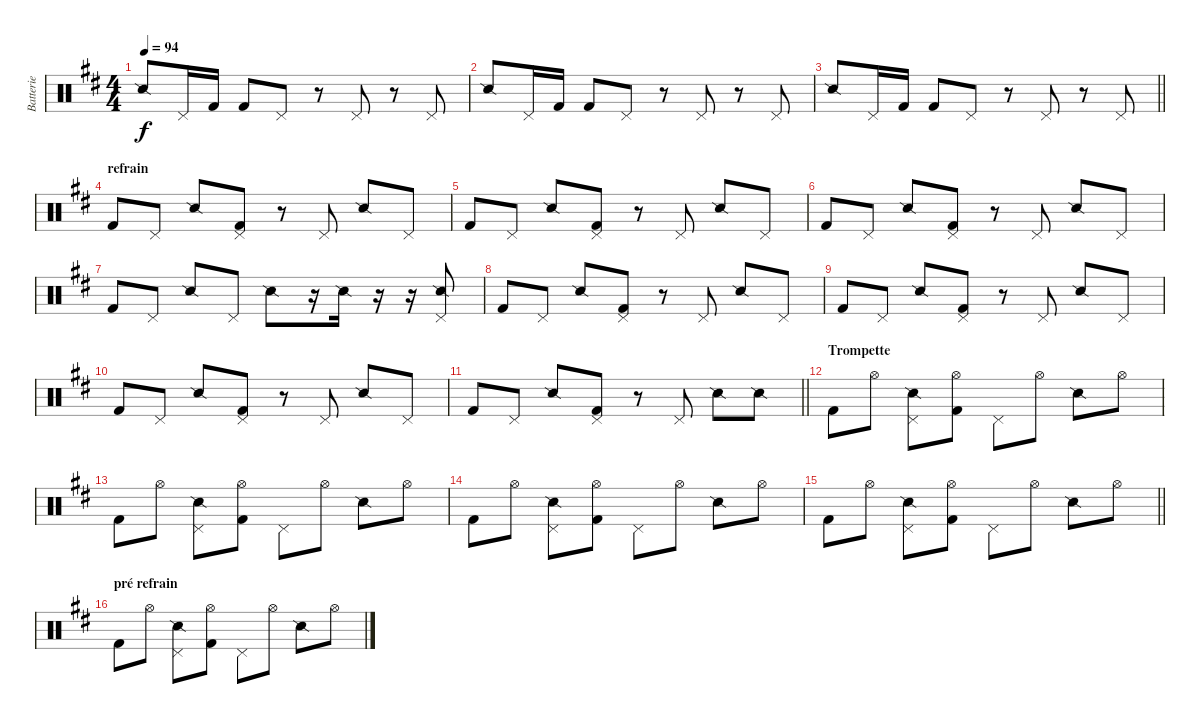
\track ("Batterie" "Batterie") {instrument percussion}
\staff {score}
\articulation defaults
\ts (4 4)
\tempo 94
\clef neutral
\ks d "Snare (side stick) 2".8{dy f} "Pedal Hi-Hat (hit)".16 "Kick (hit) 2".16 "Kick (hit) 2".8 "Pedal Hi-Hat (hit)".8
r.8 "Pedal Hi-Hat (hit)".8 r.8 "Pedal Hi-Hat (hit)".8 |
"Snare (side stick) 2".8 "Pedal Hi-Hat (hit)".16 "Kick (hit) 2".16 "Kick (hit) 2".8 "Pedal Hi-Hat (hit)".8 r.8 "Pedal Hi-Hat (hit)".8 r.8 "Pedal Hi-Hat (hit)".8 |
\barLineRight lightlight "Snare (side stick) 2".8 "Pedal Hi-Hat (hit)".16 "Kick (hit) 2".16 "Kick (hit) 2".8 "Pedal Hi-Hat (hit)".8
r.8 "Pedal Hi-Hat (hit)".8 r.8 "Pedal Hi-Hat (hit)".8 |
\section ("" "refrain")
"Kick (hit) 2".8 "Pedal Hi-Hat (hit)".8 "Snare (side stick) 2".8 ("Pedal Hi-Hat (hit)" "Kick (hit) 2").8 r.8 "Pedal Hi-Hat (hit)".8 "Snare (side stick) 2".8 "Pedal Hi-Hat (hit)".8 |
"Kick (hit) 2".8 "Pedal Hi-Hat (hit)".8 "Snare (side stick) 2".8 ("Pedal Hi-Hat (hit)" "Kick (hit) 2").8 r.8 "Pedal Hi-Hat (hit)".8 "Snare (side stick) 2".8 "Pedal Hi-Hat (hit)".8 |
"Kick (hit) 2".8 "Pedal Hi-Hat (hit)".8 "Snare (side stick) 2".8 ("Pedal Hi-Hat (hit)" "Kick (hit) 2").8 r.8 "Pedal Hi-Hat (hit)".8 "Snare (side stick) 2".8 "Pedal Hi-Hat (hit)".8 |
"Kick (hit) 2".8 "Pedal Hi-Hat (hit)".8 "Snare (side stick) 2".8 "Pedal Hi-Hat (hit)".8 "Snare (side stick) 2".8 r.16 "Snare (side stick) 2".16 r.16 r.16 ("Pedal Hi-Hat (hit)" "Snare (side stick) 2").8 |
"Kick (hit) 2".8 "Pedal Hi-Hat (hit)".8 "Snare (side stick) 2".8 ("Pedal Hi-Hat (hit)" "Kick (hit) 2").8 r.8 "Pedal Hi-Hat (hit)".8 "Snare (side stick) 2".8 "Pedal Hi-Hat (hit)".8 |
"Kick (hit) 2".8 "Pedal Hi-Hat (hit)".8 "Snare (side stick) 2".8 ("Pedal Hi-Hat (hit)" "Kick (hit) 2").8 r.8 "Pedal Hi-Hat (hit)".8 "Snare (side stick) 2".8 "Pedal Hi-Hat (hit)".8 |
"Kick (hit) 2".8 "Pedal Hi-Hat (hit)".8 "Snare (side stick) 2".8 ("Pedal Hi-Hat (hit)" "Kick (hit) 2").8 r.8 "Pedal Hi-Hat (hit)".8 "Snare (side stick) 2".8 "Pedal Hi-Hat (hit)".8 |
\barLineRight lightlight "Kick (hit) 2".8 "Pedal Hi-Hat (hit)".8 "Snare (side stick) 2".8
("Pedal Hi-Hat (hit)" "Kick (hit) 2").8 r.8 "Pedal Hi-Hat (hit)".8 "Snare (side stick) 2".8 "Snare (side stick) 2".8 |
\section ("" "Trompette")
"Kick (hit) 2".8 "Hi-Hat (open)".8 ("Pedal Hi-Hat (hit)" "Snare (side stick) 2").8 ("Hi-Hat (open)" "Kick (hit) 2").8 "Pedal Hi-Hat (hit)".8 "Hi-Hat (open)".8 "Snare (side stick) 2".8 "Hi-Hat (open)".8 |
"Kick (hit) 2".8 "Hi-Hat (open)".8 ("Pedal Hi-Hat (hit)" "Snare (side stick) 2").8 ("Hi-Hat (open)" "Kick (hit) 2").8 "Pedal Hi-Hat (hit)".8 "Hi-Hat (open)".8 "Snare (side stick) 2".8 "Hi-Hat (open)".8 |
"Kick (hit) 2".8 "Hi-Hat (open)".8 ("Pedal Hi-Hat (hit)" "Snare (side stick) 2").8 ("Hi-Hat (open)" "Kick (hit) 2").8 "Pedal Hi-Hat (hit)".8 "Hi-Hat (open)".8 "Snare (side stick) 2".8 "Hi-Hat (open)".8 |
\barLineRight lightlight "Kick (hit) 2".8 "Hi-Hat (open)".8
("Pedal Hi-Hat (hit)" "Snare (side stick) 2").8 ("Hi-Hat (open)" "Kick (hit) 2").8 "Pedal Hi-Hat (hit)".8 "Hi-Hat (open)".8 "Snare (side stick) 2".8 "Hi-Hat (open)".8 |
\section ("" "pré refrain")
"Kick (hit) 2".8 "Hi-Hat (open)".8 ("Pedal Hi-Hat (hit)" "Snare (side stick) 2").8 ("Hi-Hat (open)" "Kick (hit) 2").8 "Pedal Hi-Hat (hit)".8 "Hi-Hat (open)".8 "Snare (side stick) 2".8 "Hi-Hat (open)".8
